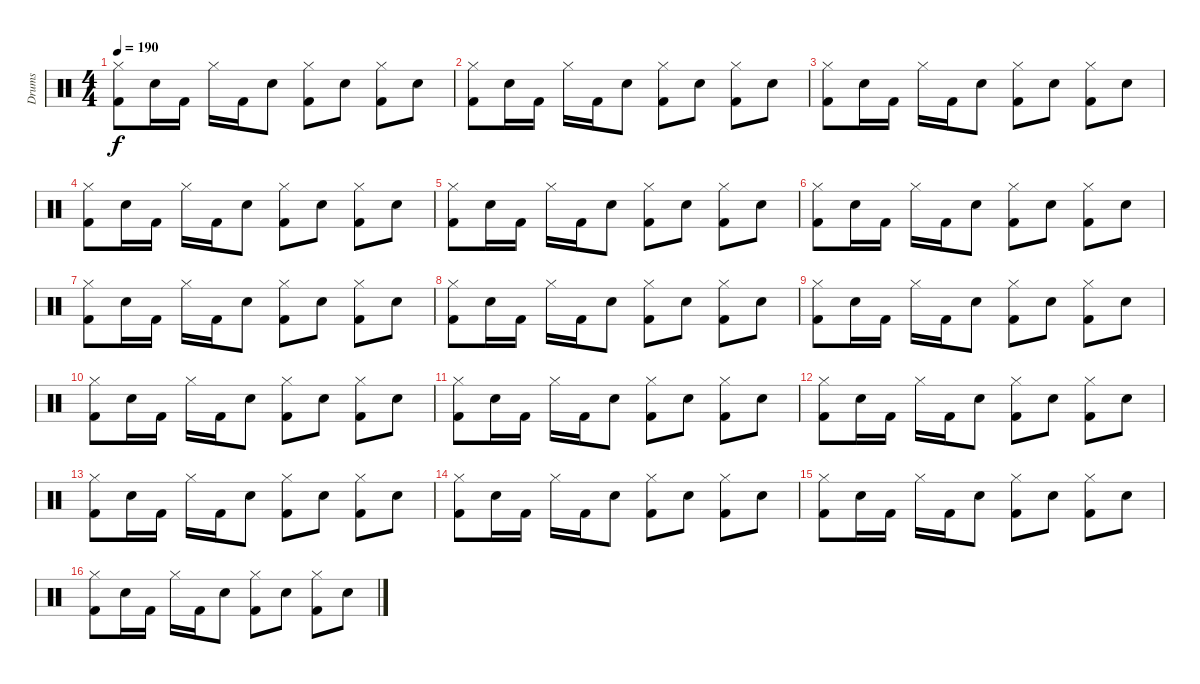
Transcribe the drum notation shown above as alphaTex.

\track ("Drums" "Drums") {instrument percussion}
\staff {score}
\articulation defaults
\ts (4 4)
\tempo 190
\clef neutral
\ks c
("Hi-Hat (closed)" "Kick (hit) 2").8{dy f} "Electric Snare (hit)".16 "Kick (hit) 2".16 "Hi-Hat (closed)".16 "Kick (hit) 2".16 "Electric Snare (hit)".8 ("Hi-Hat (closed)" "Kick (hit) 2").8 "Electric Snare (hit)".8 ("Hi-Hat (closed)" "Kick (hit) 2").8 "Electric Snare (hit)".8 |
("Hi-Hat (closed)" "Kick (hit) 2").8 "Electric Snare (hit)".16 "Kick (hit) 2".16 "Hi-Hat (closed)".16 "Kick (hit) 2".16 "Electric Snare (hit)".8 ("Hi-Hat (closed)" "Kick (hit) 2").8 "Electric Snare (hit)".8 ("Hi-Hat (closed)" "Kick (hit) 2").8 "Electric Snare (hit)".8 |
("Hi-Hat (closed)" "Kick (hit) 2").8 "Electric Snare (hit)".16 "Kick (hit) 2".16 "Hi-Hat (closed)".16 "Kick (hit) 2".16 "Electric Snare (hit)".8 ("Hi-Hat (closed)" "Kick (hit) 2").8 "Electric Snare (hit)".8 ("Hi-Hat (closed)" "Kick (hit) 2").8 "Electric Snare (hit)".8 |
("Hi-Hat (closed)" "Kick (hit) 2").8 "Electric Snare (hit)".16 "Kick (hit) 2".16 "Hi-Hat (closed)".16 "Kick (hit) 2".16 "Electric Snare (hit)".8 ("Hi-Hat (closed)" "Kick (hit) 2").8 "Electric Snare (hit)".8 ("Hi-Hat (closed)" "Kick (hit) 2").8 "Electric Snare (hit)".8 |
("Hi-Hat (closed)" "Kick (hit) 2").8 "Electric Snare (hit)".16 "Kick (hit) 2".16 "Hi-Hat (closed)".16 "Kick (hit) 2".16 "Electric Snare (hit)".8 ("Hi-Hat (closed)" "Kick (hit) 2").8 "Electric Snare (hit)".8 ("Hi-Hat (closed)" "Kick (hit) 2").8 "Electric Snare (hit)".8 |
("Hi-Hat (closed)" "Kick (hit) 2").8 "Electric Snare (hit)".16 "Kick (hit) 2".16 "Hi-Hat (closed)".16 "Kick (hit) 2".16 "Electric Snare (hit)".8 ("Hi-Hat (closed)" "Kick (hit) 2").8 "Electric Snare (hit)".8 ("Hi-Hat (closed)" "Kick (hit) 2").8 "Electric Snare (hit)".8 |
("Hi-Hat (closed)" "Kick (hit) 2").8 "Electric Snare (hit)".16 "Kick (hit) 2".16 "Hi-Hat (closed)".16 "Kick (hit) 2".16 "Electric Snare (hit)".8 ("Hi-Hat (closed)" "Kick (hit) 2").8 "Electric Snare (hit)".8 ("Hi-Hat (closed)" "Kick (hit) 2").8 "Electric Snare (hit)".8 |
("Hi-Hat (closed)" "Kick (hit) 2").8 "Electric Snare (hit)".16 "Kick (hit) 2".16 "Hi-Hat (closed)".16 "Kick (hit) 2".16 "Electric Snare (hit)".8 ("Hi-Hat (closed)" "Kick (hit) 2").8 "Electric Snare (hit)".8 ("Hi-Hat (closed)" "Kick (hit) 2").8 "Electric Snare (hit)".8 |
("Hi-Hat (closed)" "Kick (hit) 2").8 "Electric Snare (hit)".16 "Kick (hit) 2".16 "Hi-Hat (closed)".16 "Kick (hit) 2".16 "Electric Snare (hit)".8 ("Hi-Hat (closed)" "Kick (hit) 2").8 "Electric Snare (hit)".8 ("Hi-Hat (closed)" "Kick (hit) 2").8 "Electric Snare (hit)".8 |
("Hi-Hat (closed)" "Kick (hit) 2").8 "Electric Snare (hit)".16 "Kick (hit) 2".16 "Hi-Hat (closed)".16 "Kick (hit) 2".16 "Electric Snare (hit)".8 ("Hi-Hat (closed)" "Kick (hit) 2").8 "Electric Snare (hit)".8 ("Hi-Hat (closed)" "Kick (hit) 2").8 "Electric Snare (hit)".8 |
("Hi-Hat (closed)" "Kick (hit) 2").8 "Electric Snare (hit)".16 "Kick (hit) 2".16 "Hi-Hat (closed)".16 "Kick (hit) 2".16 "Electric Snare (hit)".8 ("Hi-Hat (closed)" "Kick (hit) 2").8 "Electric Snare (hit)".8 ("Hi-Hat (closed)" "Kick (hit) 2").8 "Electric Snare (hit)".8 |
("Hi-Hat (closed)" "Kick (hit) 2").8 "Electric Snare (hit)".16 "Kick (hit) 2".16 "Hi-Hat (closed)".16 "Kick (hit) 2".16 "Electric Snare (hit)".8 ("Hi-Hat (closed)" "Kick (hit) 2").8 "Electric Snare (hit)".8 ("Hi-Hat (closed)" "Kick (hit) 2").8 "Electric Snare (hit)".8 |
("Hi-Hat (closed)" "Kick (hit) 2").8 "Electric Snare (hit)".16 "Kick (hit) 2".16 "Hi-Hat (closed)".16 "Kick (hit) 2".16 "Electric Snare (hit)".8 ("Hi-Hat (closed)" "Kick (hit) 2").8 "Electric Snare (hit)".8 ("Hi-Hat (closed)" "Kick (hit) 2").8 "Electric Snare (hit)".8 |
("Hi-Hat (closed)" "Kick (hit) 2").8 "Electric Snare (hit)".16 "Kick (hit) 2".16 "Hi-Hat (closed)".16 "Kick (hit) 2".16 "Electric Snare (hit)".8 ("Hi-Hat (closed)" "Kick (hit) 2").8 "Electric Snare (hit)".8 ("Hi-Hat (closed)" "Kick (hit) 2").8 "Electric Snare (hit)".8 |
("Hi-Hat (closed)" "Kick (hit) 2").8 "Electric Snare (hit)".16 "Kick (hit) 2".16 "Hi-Hat (closed)".16 "Kick (hit) 2".16 "Electric Snare (hit)".8 ("Hi-Hat (closed)" "Kick (hit) 2").8 "Electric Snare (hit)".8 ("Hi-Hat (closed)" "Kick (hit) 2").8 "Electric Snare (hit)".8 |
("Hi-Hat (closed)" "Kick (hit) 2").8 "Electric Snare (hit)".16 "Kick (hit) 2".16 "Hi-Hat (closed)".16 "Kick (hit) 2".16 "Electric Snare (hit)".8 ("Hi-Hat (closed)" "Kick (hit) 2").8 "Electric Snare (hit)".8 ("Hi-Hat (closed)" "Kick (hit) 2").8 "Electric Snare (hit)".8
